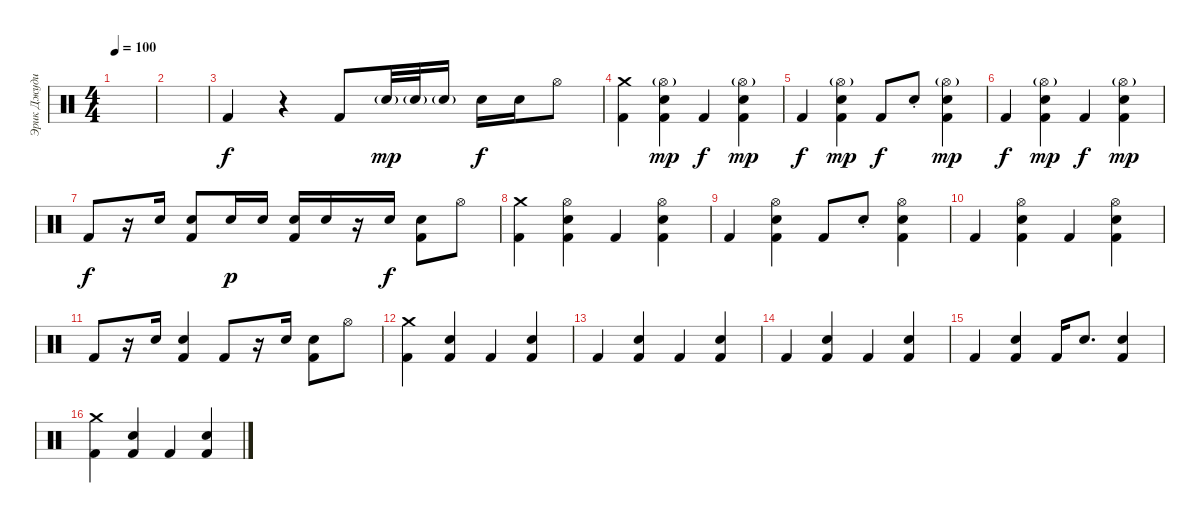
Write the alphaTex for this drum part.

\track ("Эрик Джуди" "Эрик Джуди") {instrument percussion}
\staff {score}
\articulation defaults
\ts (4 4)
\tempo 100
\clef neutral
\ks c
|
|
"Kick (hit) 2".4 r.4 "Kick (hit) 2".8 "Electric Snare (hit)"{g}.32{dy mp} "Electric Snare (hit)"{g}.32 "Electric Snare (hit)"{g}.16 "Electric Snare (hit)".16{dy f} "Electric Snare (hit)".16 "Hi-Hat (open)".8 |
("Crash medium (hit)" "Kick (hit) 2").4 ("Hi-Hat (open)"{g} "Electric Snare (hit)" "Kick (hit) 2").4{dy mp} "Kick (hit) 2".4{dy f} ("Hi-Hat (open)"{g} "Electric Snare (hit)" "Kick (hit) 2").4{dy mp} |
"Kick (hit) 2".4{dy f} ("Hi-Hat (open)"{g} "Electric Snare (hit)" "Kick (hit) 2").4{dy mp} "Kick (hit) 2".8{dy f} "Electric Snare (hit)"{st}.8 ("Hi-Hat (open)"{g} "Electric Snare (hit)" "Kick (hit) 2").4{dy mp} |
"Kick (hit) 2".4{dy f} ("Hi-Hat (open)"{g} "Electric Snare (hit)" "Kick (hit) 2").4{dy mp} "Kick (hit) 2".4{dy f} ("Hi-Hat (open)"{g} "Electric Snare (hit)" "Kick (hit) 2").4{dy mp} |
"Kick (hit) 2".8{dy f} r.16 "Electric Snare (hit)".16 ("Electric Snare (hit)" "Kick (hit) 2").8 "Electric Snare (hit)".16{dy p} "Electric Snare (hit)".16 ("Electric Snare (hit)" "Kick (hit) 2").16 "Electric Snare (hit)".16 r.16 "Electric Snare (hit)".16{dy f} ("Electric Snare (hit)" "Kick (hit) 2").8 "Hi-Hat (open)".8 |
("Crash medium (hit)" "Kick (hit) 2").4 ("Hi-Hat (open)" "Electric Snare (hit)" "Kick (hit) 2").4 "Kick (hit) 2".4 ("Hi-Hat (open)" "Electric Snare (hit)" "Kick (hit) 2").4 |
"Kick (hit) 2".4 ("Hi-Hat (open)" "Electric Snare (hit)" "Kick (hit) 2").4 "Kick (hit) 2".8 "Electric Snare (hit)"{st}.8 ("Hi-Hat (open)" "Electric Snare (hit)" "Kick (hit) 2").4 |
"Kick (hit) 2".4 ("Hi-Hat (open)" "Electric Snare (hit)" "Kick (hit) 2").4 "Kick (hit) 2".4 ("Hi-Hat (open)" "Electric Snare (hit)" "Kick (hit) 2").4 |
"Kick (hit) 2".8 r.16 "Electric Snare (hit)".16 ("Electric Snare (hit)" "Kick (hit) 2").4 "Kick (hit) 2".8 r.16 "Electric Snare (hit)".16 ("Electric Snare (hit)" "Kick (hit) 2").8 "Hi-Hat (open)".8 |
("Crash medium (hit)" "Kick (hit) 2").4 ("Electric Snare (hit)" "Kick (hit) 2").4 "Kick (hit) 2".4 ("Electric Snare (hit)" "Kick (hit) 2").4 |
"Kick (hit) 2".4 ("Electric Snare (hit)" "Kick (hit) 2").4 "Kick (hit) 2".4 ("Electric Snare (hit)" "Kick (hit) 2").4 |
"Kick (hit) 2".4 ("Electric Snare (hit)" "Kick (hit) 2").4 "Kick (hit) 2".4 ("Electric Snare (hit)" "Kick (hit) 2").4 |
"Kick (hit) 2".4 ("Electric Snare (hit)" "Kick (hit) 2").4 "Kick (hit) 2".16 "Electric Snare (hit)".8{d} ("Electric Snare (hit)" "Kick (hit) 2").4 |
("Crash medium (hit)" "Kick (hit) 2").4 ("Electric Snare (hit)" "Kick (hit) 2").4 "Kick (hit) 2".4 ("Electric Snare (hit)" "Kick (hit) 2").4
